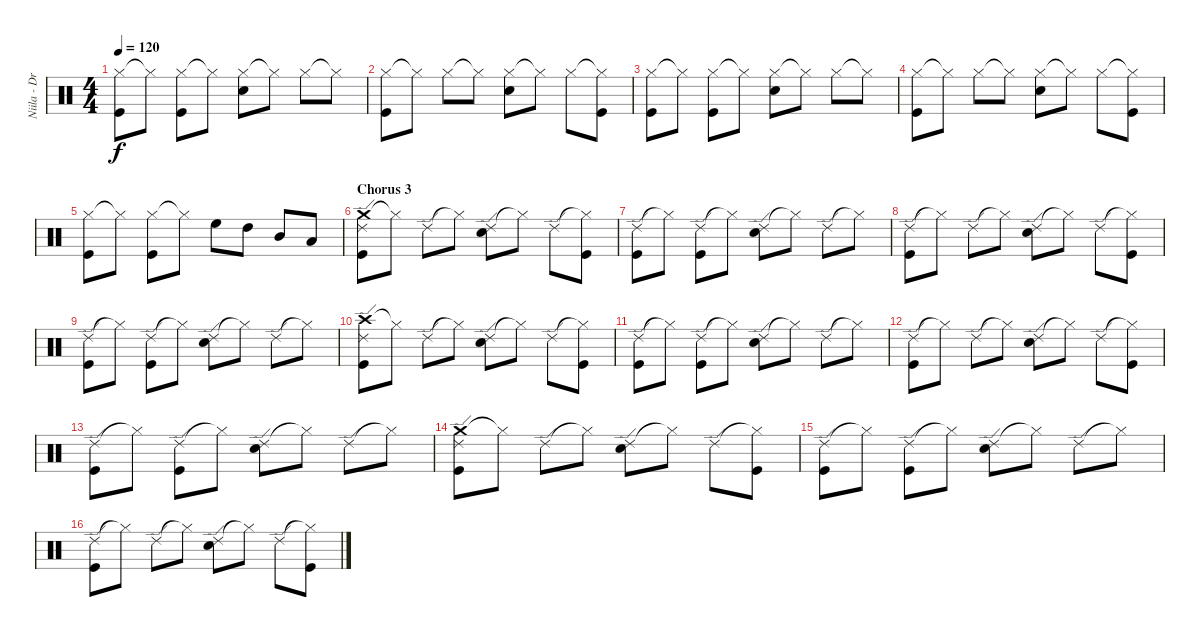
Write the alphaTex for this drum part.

\track ("Niila - Drums" "Niila - Dr") {instrument percussion}
\staff {score}
\articulation defaults
\ts (4 4)
\tempo 120
\clef neutral
\ks c
("Hi-Hat (closed)" "Kick (hit)").8{dy f} "Hi-Hat (closed)"{t}.8 ("Hi-Hat (closed)" "Kick (hit)").8 "Hi-Hat (closed)"{t}.8 ("Hi-Hat (closed)" "Snare (hit) 2").8 "Hi-Hat (closed)"{t}.8 "Hi-Hat (closed)".8 "Hi-Hat (closed)"{t}.8 |
("Hi-Hat (closed)" "Kick (hit)").8 "Hi-Hat (closed)"{t}.8 "Hi-Hat (closed)".8 "Hi-Hat (closed)"{t}.8 ("Hi-Hat (closed)" "Snare (hit) 2").8 "Hi-Hat (closed)"{t}.8 "Hi-Hat (closed)".8 ("Hi-Hat (closed)"{t} "Kick (hit)").8 |
("Hi-Hat (closed)" "Kick (hit)").8 "Hi-Hat (closed)"{t}.8 ("Hi-Hat (closed)" "Kick (hit)").8 "Hi-Hat (closed)"{t}.8 ("Hi-Hat (closed)" "Snare (hit) 2").8 "Hi-Hat (closed)"{t}.8 "Hi-Hat (closed)".8 "Hi-Hat (closed)"{t}.8 |
("Hi-Hat (closed)" "Kick (hit)").8 "Hi-Hat (closed)"{t}.8 "Hi-Hat (closed)".8 "Hi-Hat (closed)"{t}.8 ("Hi-Hat (closed)" "Snare (hit) 2").8 "Hi-Hat (closed)"{t}.8 "Hi-Hat (closed)".8 ("Hi-Hat (closed)"{t} "Kick (hit)").8 |
("Hi-Hat (closed)" "Kick (hit)").8 "Hi-Hat (closed)"{t}.8 ("Hi-Hat (closed)" "Kick (hit)").8 "Hi-Hat (closed)"{t}.8 "High Floor Tom (hit)".8 "High Tom (hit)".8 "Mid Tom (hit)".8 "Low Tom (hit)".8 |
\section ("" "Chorus 3")
("Crash medium (hit)" "Ride (edge) 2" "Kick (hit)").8 "Hi-Hat (closed)"{t}.8 "Ride (edge) 2".8 "Hi-Hat (closed)"{t}.8 ("Ride (edge) 2" "Snare (hit) 2").8 "Hi-Hat (closed)"{t}.8 "Ride (edge) 2".8 ("Hi-Hat (closed)"{t} "Kick (hit)").8 |
("Ride (edge) 2" "Kick (hit)").8 "Hi-Hat (closed)"{t}.8 ("Ride (edge) 2" "Kick (hit)").8 "Hi-Hat (closed)"{t}.8 ("Ride (edge) 2" "Snare (hit) 2").8 "Hi-Hat (closed)"{t}.8 "Ride (edge) 2".8 "Hi-Hat (closed)"{t}.8 |
("Ride (edge) 2" "Kick (hit)").8 "Hi-Hat (closed)"{t}.8 "Ride (edge) 2".8 "Hi-Hat (closed)"{t}.8 ("Ride (edge) 2" "Snare (hit) 2").8 "Hi-Hat (closed)"{t}.8 "Ride (edge) 2".8 ("Hi-Hat (closed)"{t} "Kick (hit)").8 |
("Ride (edge) 2" "Kick (hit)").8 "Hi-Hat (closed)"{t}.8 ("Ride (edge) 2" "Kick (hit)").8 "Hi-Hat (closed)"{t}.8 ("Ride (edge) 2" "Snare (hit) 2").8 "Hi-Hat (closed)"{t}.8 "Ride (edge) 2".8 "Hi-Hat (closed)"{t}.8 |
("Crash high (hit)" "Ride (edge) 2" "Kick (hit)").8 "Hi-Hat (closed)"{t}.8 "Ride (edge) 2".8 "Hi-Hat (closed)"{t}.8 ("Ride (edge) 2" "Snare (hit) 2").8 "Hi-Hat (closed)"{t}.8 "Ride (edge) 2".8 ("Hi-Hat (closed)"{t} "Kick (hit)").8 |
("Ride (edge) 2" "Kick (hit)").8 "Hi-Hat (closed)"{t}.8 ("Ride (edge) 2" "Kick (hit)").8 "Hi-Hat (closed)"{t}.8 ("Ride (edge) 2" "Snare (hit) 2").8 "Hi-Hat (closed)"{t}.8 "Ride (edge) 2".8 "Hi-Hat (closed)"{t}.8 |
("Ride (edge) 2" "Kick (hit)").8 "Hi-Hat (closed)"{t}.8 "Ride (edge) 2".8 "Hi-Hat (closed)"{t}.8 ("Ride (edge) 2" "Snare (hit) 2").8 "Hi-Hat (closed)"{t}.8 "Ride (edge) 2".8 ("Hi-Hat (closed)"{t} "Kick (hit)").8 |
("Ride (edge) 2" "Kick (hit)").8 "Hi-Hat (closed)"{t}.8 ("Ride (edge) 2" "Kick (hit)").8 "Hi-Hat (closed)"{t}.8 ("Ride (edge) 2" "Snare (hit) 2").8 "Hi-Hat (closed)"{t}.8 "Ride (edge) 2".8 "Hi-Hat (closed)"{t}.8 |
("Crash medium (hit)" "Ride (edge) 2" "Kick (hit)").8 "Hi-Hat (closed)"{t}.8 "Ride (edge) 2".8 "Hi-Hat (closed)"{t}.8 ("Ride (edge) 2" "Snare (hit) 2").8 "Hi-Hat (closed)"{t}.8 "Ride (edge) 2".8 ("Hi-Hat (closed)"{t} "Kick (hit)").8 |
("Ride (edge) 2" "Kick (hit)").8 "Hi-Hat (closed)"{t}.8 ("Ride (edge) 2" "Kick (hit)").8 "Hi-Hat (closed)"{t}.8 ("Ride (edge) 2" "Snare (hit) 2").8 "Hi-Hat (closed)"{t}.8 "Ride (edge) 2".8 "Hi-Hat (closed)"{t}.8 |
("Ride (edge) 2" "Kick (hit)").8 "Hi-Hat (closed)"{t}.8 "Ride (edge) 2".8 "Hi-Hat (closed)"{t}.8 ("Ride (edge) 2" "Snare (hit) 2").8 "Hi-Hat (closed)"{t}.8 "Ride (edge) 2".8 ("Hi-Hat (closed)"{t} "Kick (hit)").8
